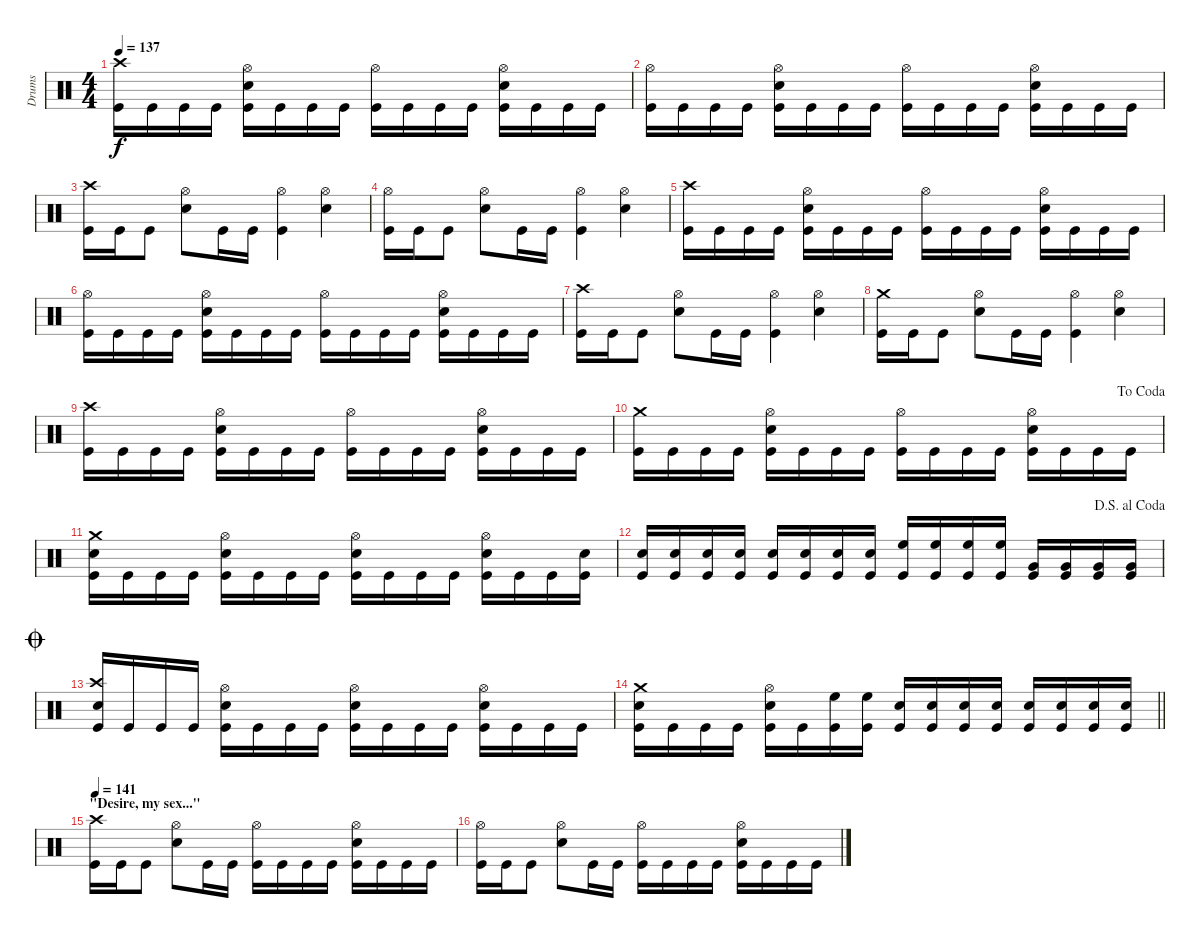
\track ("Drums" "Drums") {instrument percussion}
\staff {score}
\articulation defaults
\ts (4 4)
\tempo 137
\clef neutral
\ks c
("Kick (hit)" "Crash high (hit)").16{dy f} "Kick (hit)".16 "Kick (hit)".16 "Kick (hit)".16 ("Kick (hit)" "Snare (hit) 2" "Hi-Hat (open)").16 "Kick (hit)".16 "Kick (hit)".16 "Kick (hit)".16 ("Kick (hit)" "Hi-Hat (open)").16 "Kick (hit)".16 "Kick (hit)".16 "Kick (hit)".16 ("Kick (hit)" "Snare (hit) 2" "Hi-Hat (open)").16 "Kick (hit)".16 "Kick (hit)".16 "Kick (hit)".16 |
("Kick (hit)" "Hi-Hat (open)").16 "Kick (hit)".16 "Kick (hit)".16 "Kick (hit)".16 ("Kick (hit)" "Snare (hit) 2" "Hi-Hat (open)").16 "Kick (hit)".16 "Kick (hit)".16 "Kick (hit)".16 ("Kick (hit)" "Hi-Hat (open)").16 "Kick (hit)".16 "Kick (hit)".16 "Kick (hit)".16 ("Kick (hit)" "Snare (hit) 2" "Hi-Hat (open)").16 "Kick (hit)".16 "Kick (hit)".16 "Kick (hit)".16 |
("Kick (hit)" "Crash high (hit)").16 "Kick (hit)".16 "Kick (hit)".8 ("Snare (hit) 2" "Hi-Hat (open)").8 "Kick (hit)".16 "Kick (hit)".16 ("Kick (hit)" "Hi-Hat (open)").4 ("Snare (hit) 2" "Hi-Hat (open)").4 |
("Kick (hit)" "Hi-Hat (open)").16 "Kick (hit)".16 "Kick (hit)".8 ("Snare (hit) 2" "Hi-Hat (open)").8 "Kick (hit)".16 "Kick (hit)".16 ("Kick (hit)" "Hi-Hat (open)").4 ("Snare (hit) 2" "Hi-Hat (open)").4 |
("Kick (hit)" "Crash high (hit)").16 "Kick (hit)".16 "Kick (hit)".16 "Kick (hit)".16 ("Kick (hit)" "Snare (hit) 2" "Hi-Hat (open)").16 "Kick (hit)".16 "Kick (hit)".16 "Kick (hit)".16 ("Kick (hit)" "Hi-Hat (open)").16 "Kick (hit)".16 "Kick (hit)".16 "Kick (hit)".16 ("Kick (hit)" "Snare (hit) 2" "Hi-Hat (open)").16 "Kick (hit)".16 "Kick (hit)".16 "Kick (hit)".16 |
("Kick (hit)" "Hi-Hat (open)").16 "Kick (hit)".16 "Kick (hit)".16 "Kick (hit)".16 ("Kick (hit)" "Snare (hit) 2" "Hi-Hat (open)").16 "Kick (hit)".16 "Kick (hit)".16 "Kick (hit)".16 ("Kick (hit)" "Hi-Hat (open)").16 "Kick (hit)".16 "Kick (hit)".16 "Kick (hit)".16 ("Kick (hit)" "Snare (hit) 2" "Hi-Hat (open)").16 "Kick (hit)".16 "Kick (hit)".16 "Kick (hit)".16 |
("Kick (hit)" "Crash high (hit)").16 "Kick (hit)".16 "Kick (hit)".8 ("Snare (hit) 2" "Hi-Hat (open)").8 "Kick (hit)".16 "Kick (hit)".16 ("Kick (hit)" "Hi-Hat (open)").4 ("Snare (hit) 2" "Hi-Hat (open)").4 |
("Kick (hit)" "Crash medium (hit)").16 "Kick (hit)".16 "Kick (hit)".8 ("Snare (hit) 2" "Hi-Hat (open)").8 "Kick (hit)".16 "Kick (hit)".16 ("Kick (hit)" "Hi-Hat (open)").4 ("Snare (hit) 2" "Hi-Hat (open)").4 |
("Kick (hit)" "Crash high (hit)").16 "Kick (hit)".16 "Kick (hit)".16 "Kick (hit)".16 ("Kick (hit)" "Snare (hit) 2" "Hi-Hat (open)").16 "Kick (hit)".16 "Kick (hit)".16 "Kick (hit)".16 ("Kick (hit)" "Hi-Hat (open)").16 "Kick (hit)".16 "Kick (hit)".16 "Kick (hit)".16 ("Kick (hit)" "Snare (hit) 2" "Hi-Hat (open)").16 "Kick (hit)".16 "Kick (hit)".16 "Kick (hit)".16 |
\jump dacoda
("Kick (hit)" "Crash medium (hit)").16 "Kick (hit)".16 "Kick (hit)".16 "Kick (hit)".16 ("Kick (hit)" "Snare (hit) 2" "Hi-Hat (open)").16 "Kick (hit)".16 "Kick (hit)".16 "Kick (hit)".16 ("Kick (hit)" "Hi-Hat (open)").16 "Kick (hit)".16 "Kick (hit)".16 "Kick (hit)".16 ("Kick (hit)" "Snare (hit) 2" "Hi-Hat (open)").16 "Kick (hit)".16 "Kick (hit)".16 "Kick (hit)".16 |
("Kick (hit)" "Snare (hit) 2" "Crash medium (hit)").16 "Kick (hit)".16 "Kick (hit)".16 "Kick (hit)".16 ("Kick (hit)" "Snare (hit) 2" "Hi-Hat (open)").16 "Kick (hit)".16 "Kick (hit)".16 "Kick (hit)".16 ("Kick (hit)" "Snare (hit) 2" "Hi-Hat (open)").16 "Kick (hit)".16 "Kick (hit)".16 "Kick (hit)".16 ("Kick (hit)" "Snare (hit) 2" "Hi-Hat (open)").16 "Kick (hit)".16 "Kick (hit)".16 ("Kick (hit)" "Snare (hit) 2").16 |
\jump dalsegnoalcoda
("Kick (hit)" "Snare (hit) 2").16 ("Kick (hit)" "Snare (hit) 2").16 ("Kick (hit)" "Snare (hit) 2").16 ("Kick (hit)" "Snare (hit) 2").16 ("Kick (hit)" "Snare (hit) 2").16 ("Kick (hit)" "Snare (hit) 2").16 ("Kick (hit)" "Snare (hit) 2").16 ("Kick (hit)" "Snare (hit) 2").16 ("Kick (hit)" "High Floor Tom (hit)").16 ("Kick (hit)" "High Floor Tom (hit)").16 ("Kick (hit)" "High Floor Tom (hit)").16 ("Kick (hit)" "High Floor Tom (hit)").16 ("Kick (hit)" "Very Low Tom (hit)").16 ("Kick (hit)" "Very Low Tom (hit)").16 ("Kick (hit)" "Very Low Tom (hit)").16 ("Kick (hit)" "Very Low Tom (hit)").16 |
\jump coda
("Kick (hit)" "Snare (hit) 2" "Crash high (hit)").16 "Kick (hit)".16 "Kick (hit)".16 "Kick (hit)".16 ("Kick (hit)" "Snare (hit) 2" "Hi-Hat (open)").16 "Kick (hit)".16 "Kick (hit)".16 "Kick (hit)".16 ("Kick (hit)" "Snare (hit) 2" "Hi-Hat (open)").16 "Kick (hit)".16 "Kick (hit)".16 "Kick (hit)".16 ("Kick (hit)" "Snare (hit) 2" "Hi-Hat (open)").16 "Kick (hit)".16 "Kick (hit)".16 "Kick (hit)".16 |
\barLineRight lightlight
("Kick (hit)" "Snare (hit) 2" "Crash medium (hit)").16 "Kick (hit)".16 "Kick (hit)".16 "Kick (hit)".16 ("Kick (hit)" "Snare (hit) 2" "Hi-Hat (open)").16 "Kick (hit)".16 ("Kick (hit)" "High Floor Tom (hit)").16 ("Kick (hit)" "High Floor Tom (hit)").16 ("Kick (hit)" "Snare (hit) 2").16 ("Kick (hit)" "Snare (hit) 2").16 ("Kick (hit)" "Snare (hit) 2").16 ("Kick (hit)" "Snare (hit) 2").16 ("Kick (hit)" "Snare (hit) 2").16 ("Kick (hit)" "Snare (hit) 2").16 ("Kick (hit)" "Snare (hit) 2").16 ("Kick (hit)" "Snare (hit) 2").16 |
\section ("" "\"Desire, my sex...\"")
\tempo 141
("Kick (hit)" "Crash high (hit)").16 "Kick (hit)".16 "Kick (hit)".8 ("Snare (hit) 2" "Hi-Hat (open)").8 "Kick (hit)".16 "Kick (hit)".16 ("Kick (hit)" "Hi-Hat (open)").16 "Kick (hit)".16 "Kick (hit)".16 "Kick (hit)".16 ("Kick (hit)" "Snare (hit) 2" "Hi-Hat (open)").16 "Kick (hit)".16 "Kick (hit)".16 "Kick (hit)".16 |
("Kick (hit)" "Hi-Hat (open)").16 "Kick (hit)".16 "Kick (hit)".8 ("Snare (hit) 2" "Hi-Hat (open)").8 "Kick (hit)".16 "Kick (hit)".16 ("Kick (hit)" "Hi-Hat (open)").16 "Kick (hit)".16 "Kick (hit)".16 "Kick (hit)".16 ("Kick (hit)" "Snare (hit) 2" "Hi-Hat (open)").16 "Kick (hit)".16 "Kick (hit)".16 "Kick (hit)".16
